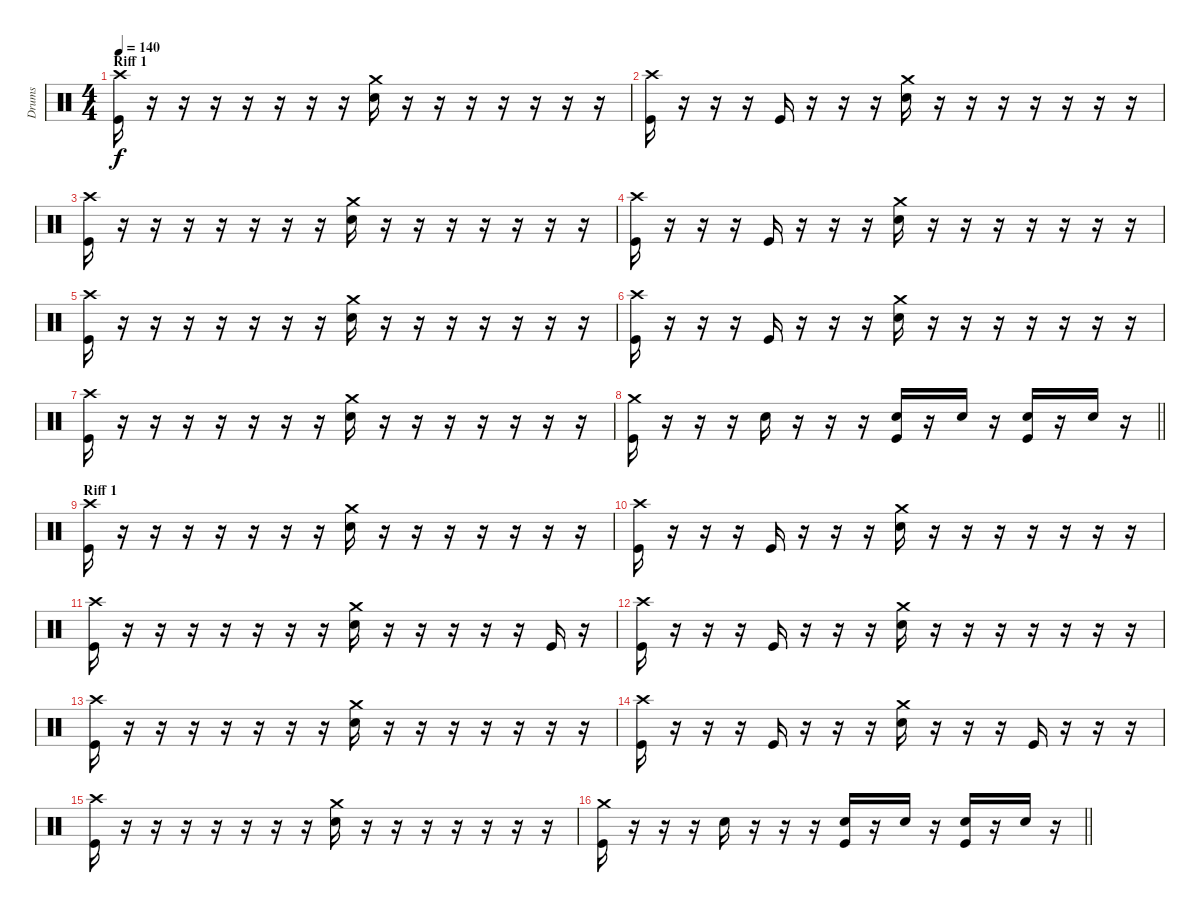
\track ("Drums" "Drums") {instrument percussion}
\staff {score}
\articulation defaults
\ts (4 4)
\section ("" "Riff 1")
\tempo 140
\clef neutral
\ks c
("Crash high (hit)" "Kick (hit)").16{dy f} r.16 r.16 r.16 r.16 r.16 r.16 r.16 ("Crash medium (hit)" "Electric Snare (hit)").16 r.16 r.16 r.16 r.16 r.16 r.16 r.16 |
("Crash high (hit)" "Kick (hit)").16 r.16 r.16 r.16 "Kick (hit)".16 r.16 r.16 r.16 ("Crash medium (hit)" "Electric Snare (hit)").16 r.16 r.16 r.16 r.16 r.16 r.16 r.16 |
("Crash high (hit)" "Kick (hit)").16 r.16 r.16 r.16 r.16 r.16 r.16 r.16 ("Crash medium (hit)" "Electric Snare (hit)").16 r.16 r.16 r.16 r.16 r.16 r.16 r.16 |
("Crash high (hit)" "Kick (hit)").16 r.16 r.16 r.16 "Kick (hit)".16 r.16 r.16 r.16 ("Crash medium (hit)" "Electric Snare (hit)").16 r.16 r.16 r.16 r.16 r.16 r.16 r.16 |
("Crash high (hit)" "Kick (hit)").16 r.16 r.16 r.16 r.16 r.16 r.16 r.16 ("Crash medium (hit)" "Electric Snare (hit)").16 r.16 r.16 r.16 r.16 r.16 r.16 r.16 |
("Crash high (hit)" "Kick (hit)").16 r.16 r.16 r.16 "Kick (hit)".16 r.16 r.16 r.16 ("Crash medium (hit)" "Electric Snare (hit)").16 r.16 r.16 r.16 r.16 r.16 r.16 r.16 |
("Crash high (hit)" "Kick (hit)").16 r.16 r.16 r.16 r.16 r.16 r.16 r.16 ("Crash medium (hit)" "Electric Snare (hit)").16 r.16 r.16 r.16 r.16 r.16 r.16 r.16 |
\barLineRight lightlight
("Crash medium (hit)" "Kick (hit)").16 r.16 r.16 r.16 "Electric Snare (hit)".16 r.16 r.16 r.16 ("Electric Snare (hit)" "Kick (hit)").16 r.16 "Electric Snare (hit)".16 r.16 ("Electric Snare (hit)" "Kick (hit)").16 r.16 "Electric Snare (hit)".16 r.16 |
\section ("" "Riff 1")
("Crash high (hit)" "Kick (hit)").16 r.16 r.16 r.16 r.16 r.16 r.16 r.16 ("Crash medium (hit)" "Electric Snare (hit)").16 r.16 r.16 r.16 r.16 r.16 r.16 r.16 |
("Crash high (hit)" "Kick (hit)").16 r.16 r.16 r.16 "Kick (hit)".16 r.16 r.16 r.16 ("Crash medium (hit)" "Electric Snare (hit)").16 r.16 r.16 r.16 r.16 r.16 r.16 r.16 |
("Crash high (hit)" "Kick (hit)").16 r.16 r.16 r.16 r.16 r.16 r.16 r.16 ("Crash medium (hit)" "Electric Snare (hit)").16 r.16 r.16 r.16 r.16 r.16 "Kick (hit)".16 r.16 |
("Crash high (hit)" "Kick (hit)").16 r.16 r.16 r.16 "Kick (hit)".16 r.16 r.16 r.16 ("Crash medium (hit)" "Electric Snare (hit)").16 r.16 r.16 r.16 r.16 r.16 r.16 r.16 |
("Crash high (hit)" "Kick (hit)").16 r.16 r.16 r.16 r.16 r.16 r.16 r.16 ("Crash medium (hit)" "Electric Snare (hit)").16 r.16 r.16 r.16 r.16 r.16 r.16 r.16 |
("Crash high (hit)" "Kick (hit)").16 r.16 r.16 r.16 "Kick (hit)".16 r.16 r.16 r.16 ("Crash medium (hit)" "Electric Snare (hit)").16 r.16 r.16 r.16 "Kick (hit)".16 r.16 r.16 r.16 |
("Crash high (hit)" "Kick (hit)").16 r.16 r.16 r.16 r.16 r.16 r.16 r.16 ("Crash medium (hit)" "Electric Snare (hit)").16 r.16 r.16 r.16 r.16 r.16 r.16 r.16 |
\barLineRight lightlight
("Crash medium (hit)" "Kick (hit)").16 r.16 r.16 r.16 "Electric Snare (hit)".16 r.16 r.16 r.16 ("Electric Snare (hit)" "Kick (hit)").16 r.16 "Electric Snare (hit)".16 r.16 ("Electric Snare (hit)" "Kick (hit)").16 r.16 "Electric Snare (hit)".16 r.16
